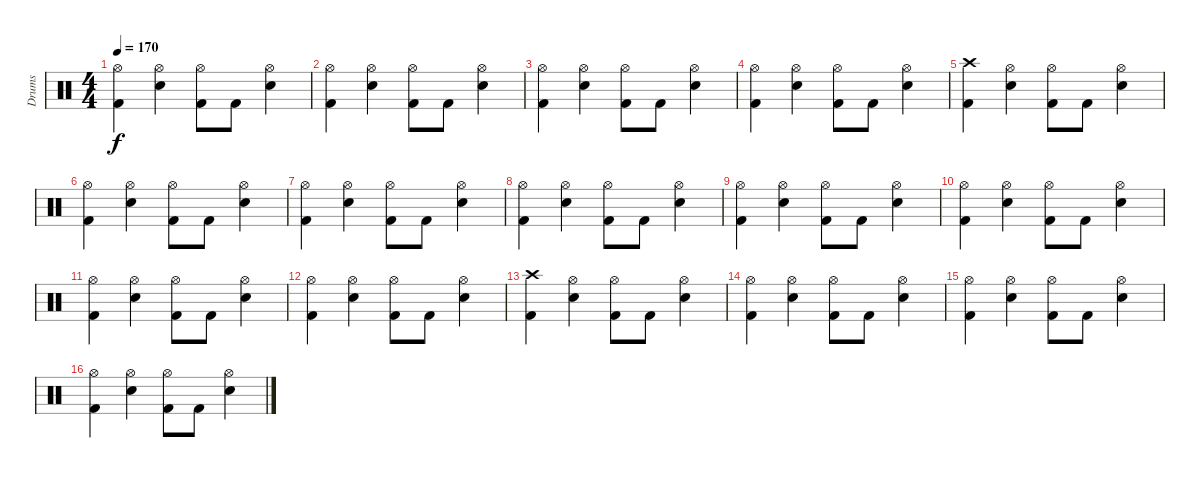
\track ("Drums" "Drums") {instrument percussion}
\staff {score}
\articulation defaults
\ts (4 4)
\tempo 170
\clef neutral
\ks c
("Hi-Hat (open)" "Kick (hit) 2").4{dy f} ("Hi-Hat (open)" "Snare (hit) 2").4 ("Hi-Hat (open)" "Kick (hit) 2").8 "Kick (hit) 2".8 ("Hi-Hat (open)" "Snare (hit) 2").4 |
("Hi-Hat (open)" "Kick (hit) 2").4 ("Hi-Hat (open)" "Snare (hit) 2").4 ("Hi-Hat (open)" "Kick (hit) 2").8 "Kick (hit) 2".8 ("Hi-Hat (open)" "Snare (hit) 2").4 |
("Hi-Hat (open)" "Kick (hit) 2").4 ("Hi-Hat (open)" "Snare (hit) 2").4 ("Hi-Hat (open)" "Kick (hit) 2").8 "Kick (hit) 2".8 ("Hi-Hat (open)" "Snare (hit) 2").4 |
("Hi-Hat (open)" "Kick (hit) 2").4 ("Hi-Hat (open)" "Snare (hit) 2").4 ("Hi-Hat (open)" "Kick (hit) 2").8 "Kick (hit) 2".8 ("Hi-Hat (open)" "Snare (hit) 2").4 |
("Crash high (hit)" "Kick (hit) 2").4 ("Hi-Hat (open)" "Snare (hit) 2").4 ("Hi-Hat (open)" "Kick (hit) 2").8 "Kick (hit) 2".8 ("Hi-Hat (open)" "Snare (hit) 2").4 |
("Hi-Hat (open)" "Kick (hit) 2").4 ("Hi-Hat (open)" "Snare (hit) 2").4 ("Hi-Hat (open)" "Kick (hit) 2").8 "Kick (hit) 2".8 ("Hi-Hat (open)" "Snare (hit) 2").4 |
("Hi-Hat (open)" "Kick (hit) 2").4 ("Hi-Hat (open)" "Snare (hit) 2").4 ("Hi-Hat (open)" "Kick (hit) 2").8 "Kick (hit) 2".8 ("Hi-Hat (open)" "Snare (hit) 2").4 |
("Hi-Hat (open)" "Kick (hit) 2").4 ("Hi-Hat (open)" "Snare (hit) 2").4 ("Hi-Hat (open)" "Kick (hit) 2").8 "Kick (hit) 2".8 ("Hi-Hat (open)" "Snare (hit) 2").4 |
("Hi-Hat (open)" "Kick (hit) 2").4 ("Hi-Hat (open)" "Snare (hit) 2").4 ("Hi-Hat (open)" "Kick (hit) 2").8 "Kick (hit) 2".8 ("Hi-Hat (open)" "Snare (hit) 2").4 |
("Hi-Hat (open)" "Kick (hit) 2").4 ("Hi-Hat (open)" "Snare (hit) 2").4 ("Hi-Hat (open)" "Kick (hit) 2").8 "Kick (hit) 2".8 ("Hi-Hat (open)" "Snare (hit) 2").4 |
("Hi-Hat (open)" "Kick (hit) 2").4 ("Hi-Hat (open)" "Snare (hit) 2").4 ("Hi-Hat (open)" "Kick (hit) 2").8 "Kick (hit) 2".8 ("Hi-Hat (open)" "Snare (hit) 2").4 |
("Hi-Hat (open)" "Kick (hit) 2").4 ("Hi-Hat (open)" "Snare (hit) 2").4 ("Hi-Hat (open)" "Kick (hit) 2").8 "Kick (hit) 2".8 ("Hi-Hat (open)" "Snare (hit) 2").4 |
("Crash high (hit)" "Kick (hit) 2").4 ("Hi-Hat (open)" "Snare (hit) 2").4 ("Hi-Hat (open)" "Kick (hit) 2").8 "Kick (hit) 2".8 ("Hi-Hat (open)" "Snare (hit) 2").4 |
("Hi-Hat (open)" "Kick (hit) 2").4 ("Hi-Hat (open)" "Snare (hit) 2").4 ("Hi-Hat (open)" "Kick (hit) 2").8 "Kick (hit) 2".8 ("Hi-Hat (open)" "Snare (hit) 2").4 |
("Hi-Hat (open)" "Kick (hit) 2").4 ("Hi-Hat (open)" "Snare (hit) 2").4 ("Hi-Hat (open)" "Kick (hit) 2").8 "Kick (hit) 2".8 ("Hi-Hat (open)" "Snare (hit) 2").4 |
("Hi-Hat (open)" "Kick (hit) 2").4 ("Hi-Hat (open)" "Snare (hit) 2").4 ("Hi-Hat (open)" "Kick (hit) 2").8 "Kick (hit) 2".8 ("Hi-Hat (open)" "Snare (hit) 2").4
